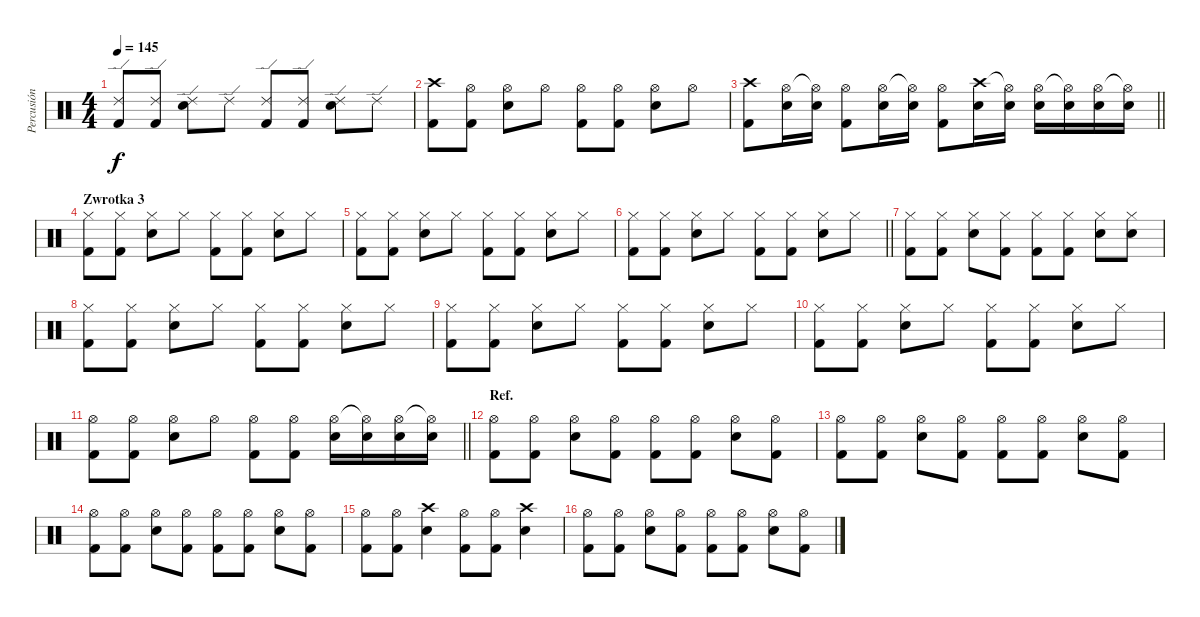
\track ("Percusión" "Percusión") {instrument percussion}
\staff {score}
\articulation defaults
\ts (4 4)
\tempo 145
\clef neutral
\ks c
("Ride (edge) 2" "Kick (hit) 2").8{dy f} ("Ride (edge) 2" "Kick (hit) 2").8 ("Ride (edge) 2" "Snare (hit) 2").8 "Ride (edge) 2".8 ("Ride (edge) 2" "Kick (hit) 2").8 ("Ride (edge) 2" "Kick (hit) 2").8 ("Ride (edge) 2" "Snare (hit) 2").8 "Ride (edge) 2".8 |
("Crash high (hit)" "Kick (hit) 2").8 ("Hi-Hat (open)" "Kick (hit) 2").8 ("Hi-Hat (open)" "Snare (hit) 2").8 "Hi-Hat (open)".8 ("Hi-Hat (open)" "Kick (hit) 2").8 ("Hi-Hat (open)" "Kick (hit) 2").8 ("Hi-Hat (open)" "Snare (hit) 2").8 "Hi-Hat (open)".8 |
\barLineRight lightlight
("Crash high (hit)" "Kick (hit) 2").8 ("Hi-Hat (open)" "Snare (hit) 2").16 ("Hi-Hat (open)"{t} "Snare (hit) 2").16 ("Hi-Hat (open)" "Kick (hit) 2").8 ("Hi-Hat (open)" "Snare (hit) 2").16 ("Hi-Hat (open)"{t} "Snare (hit) 2").16 ("Hi-Hat (open)" "Kick (hit) 2").8 ("Crash high (hit)" "Snare (hit) 2").16 ("Hi-Hat (open)"{t} "Snare (hit) 2").16 ("Hi-Hat (open)" "Snare (hit) 2").16 ("Hi-Hat (open)"{t} "Snare (hit) 2").16 ("Hi-Hat (open)" "Snare (hit) 2").16 ("Hi-Hat (open)"{t} "Snare (hit) 2").16 |
\section ("" "Zwrotka 3")
("Hi-Hat (closed)" "Kick (hit) 2").8 ("Hi-Hat (closed)" "Kick (hit) 2").8 ("Hi-Hat (closed)" "Snare (hit) 2").8 "Hi-Hat (closed)".8 ("Hi-Hat (closed)" "Kick (hit) 2").8 ("Hi-Hat (closed)" "Kick (hit) 2").8 ("Hi-Hat (closed)" "Snare (hit) 2").8 "Hi-Hat (closed)".8 |
("Hi-Hat (closed)" "Kick (hit) 2").8 ("Hi-Hat (closed)" "Kick (hit) 2").8 ("Hi-Hat (closed)" "Snare (hit) 2").8 "Hi-Hat (closed)".8 ("Hi-Hat (closed)" "Kick (hit) 2").8 ("Hi-Hat (closed)" "Kick (hit) 2").8 ("Hi-Hat (closed)" "Snare (hit) 2").8 "Hi-Hat (closed)".8 |
\barLineRight lightlight
("Hi-Hat (closed)" "Kick (hit) 2").8 ("Hi-Hat (closed)" "Kick (hit) 2").8 ("Hi-Hat (closed)" "Snare (hit) 2").8 "Hi-Hat (closed)".8 ("Hi-Hat (closed)" "Kick (hit) 2").8 ("Hi-Hat (closed)" "Kick (hit) 2").8 ("Hi-Hat (closed)" "Snare (hit) 2").8 "Hi-Hat (closed)".8 |
("Hi-Hat (closed)" "Kick (hit) 2").8 ("Hi-Hat (closed)" "Kick (hit) 2").8 ("Hi-Hat (closed)" "Snare (hit) 2").8 ("Hi-Hat (closed)" "Kick (hit) 2").8 ("Hi-Hat (closed)" "Kick (hit) 2").8 ("Hi-Hat (closed)" "Kick (hit) 2").8 ("Hi-Hat (closed)" "Snare (hit) 2").8 ("Hi-Hat (closed)" "Snare (hit) 2").8 |
("Hi-Hat (closed)" "Kick (hit) 2").8 ("Hi-Hat (closed)" "Kick (hit) 2").8 ("Hi-Hat (closed)" "Snare (hit) 2").8 "Hi-Hat (closed)".8 ("Hi-Hat (closed)" "Kick (hit) 2").8 ("Hi-Hat (closed)" "Kick (hit) 2").8 ("Hi-Hat (closed)" "Snare (hit) 2").8 "Hi-Hat (closed)".8 |
("Hi-Hat (closed)" "Kick (hit) 2").8 ("Hi-Hat (closed)" "Kick (hit) 2").8 ("Hi-Hat (closed)" "Snare (hit) 2").8 "Hi-Hat (closed)".8 ("Hi-Hat (closed)" "Kick (hit) 2").8 ("Hi-Hat (closed)" "Kick (hit) 2").8 ("Hi-Hat (closed)" "Snare (hit) 2").8 "Hi-Hat (closed)".8 |
("Hi-Hat (closed)" "Kick (hit) 2").8 ("Hi-Hat (closed)" "Kick (hit) 2").8 ("Hi-Hat (closed)" "Snare (hit) 2").8 "Hi-Hat (closed)".8 ("Hi-Hat (closed)" "Kick (hit) 2").8 ("Hi-Hat (closed)" "Kick (hit) 2").8 ("Hi-Hat (closed)" "Snare (hit) 2").8 "Hi-Hat (closed)".8 |
\barLineRight lightlight
("Hi-Hat (open)" "Kick (hit) 2").8 ("Hi-Hat (open)" "Kick (hit) 2").8 ("Hi-Hat (open)" "Snare (hit) 2").8 "Hi-Hat (open)".8 ("Hi-Hat (open)" "Kick (hit) 2").8 ("Hi-Hat (open)" "Kick (hit) 2").8 ("Hi-Hat (open)" "Snare (hit) 2").16 ("Hi-Hat (open)"{t} "Snare (hit) 2").16 ("Hi-Hat (open)" "Snare (hit) 2").16 ("Hi-Hat (open)"{t} "Snare (hit) 2").16 |
\section ("" "Ref.")
("Hi-Hat (open)" "Kick (hit) 2").8 ("Hi-Hat (open)" "Kick (hit) 2").8 ("Hi-Hat (open)" "Snare (hit) 2").8 ("Hi-Hat (open)" "Kick (hit) 2").8 ("Hi-Hat (open)" "Kick (hit) 2").8 ("Hi-Hat (open)" "Kick (hit) 2").8 ("Hi-Hat (open)" "Snare (hit) 2").8 ("Hi-Hat (open)" "Kick (hit) 2").8 |
("Hi-Hat (open)" "Kick (hit) 2").8 ("Hi-Hat (open)" "Kick (hit) 2").8 ("Hi-Hat (open)" "Snare (hit) 2").8 ("Hi-Hat (open)" "Kick (hit) 2").8 ("Hi-Hat (open)" "Kick (hit) 2").8 ("Hi-Hat (open)" "Kick (hit) 2").8 ("Hi-Hat (open)" "Snare (hit) 2").8 ("Hi-Hat (open)" "Kick (hit) 2").8 |
("Hi-Hat (open)" "Kick (hit) 2").8 ("Hi-Hat (open)" "Kick (hit) 2").8 ("Hi-Hat (open)" "Snare (hit) 2").8 ("Hi-Hat (open)" "Kick (hit) 2").8 ("Hi-Hat (open)" "Kick (hit) 2").8 ("Hi-Hat (open)" "Kick (hit) 2").8 ("Hi-Hat (open)" "Snare (hit) 2").8 ("Hi-Hat (open)" "Kick (hit) 2").8 |
("Hi-Hat (open)" "Kick (hit) 2").8 ("Hi-Hat (open)" "Kick (hit) 2").8 ("Crash high (hit)" "Snare (hit) 2").4 ("Hi-Hat (open)" "Kick (hit) 2").8 ("Hi-Hat (open)" "Kick (hit) 2").8 ("Crash high (hit)" "Snare (hit) 2").4 |
("Hi-Hat (open)" "Kick (hit) 2").8 ("Hi-Hat (open)" "Kick (hit) 2").8 ("Hi-Hat (open)" "Snare (hit) 2").8 ("Hi-Hat (open)" "Kick (hit) 2").8 ("Hi-Hat (open)" "Kick (hit) 2").8 ("Hi-Hat (open)" "Kick (hit) 2").8 ("Hi-Hat (open)" "Snare (hit) 2").8 ("Hi-Hat (open)" "Kick (hit) 2").8
